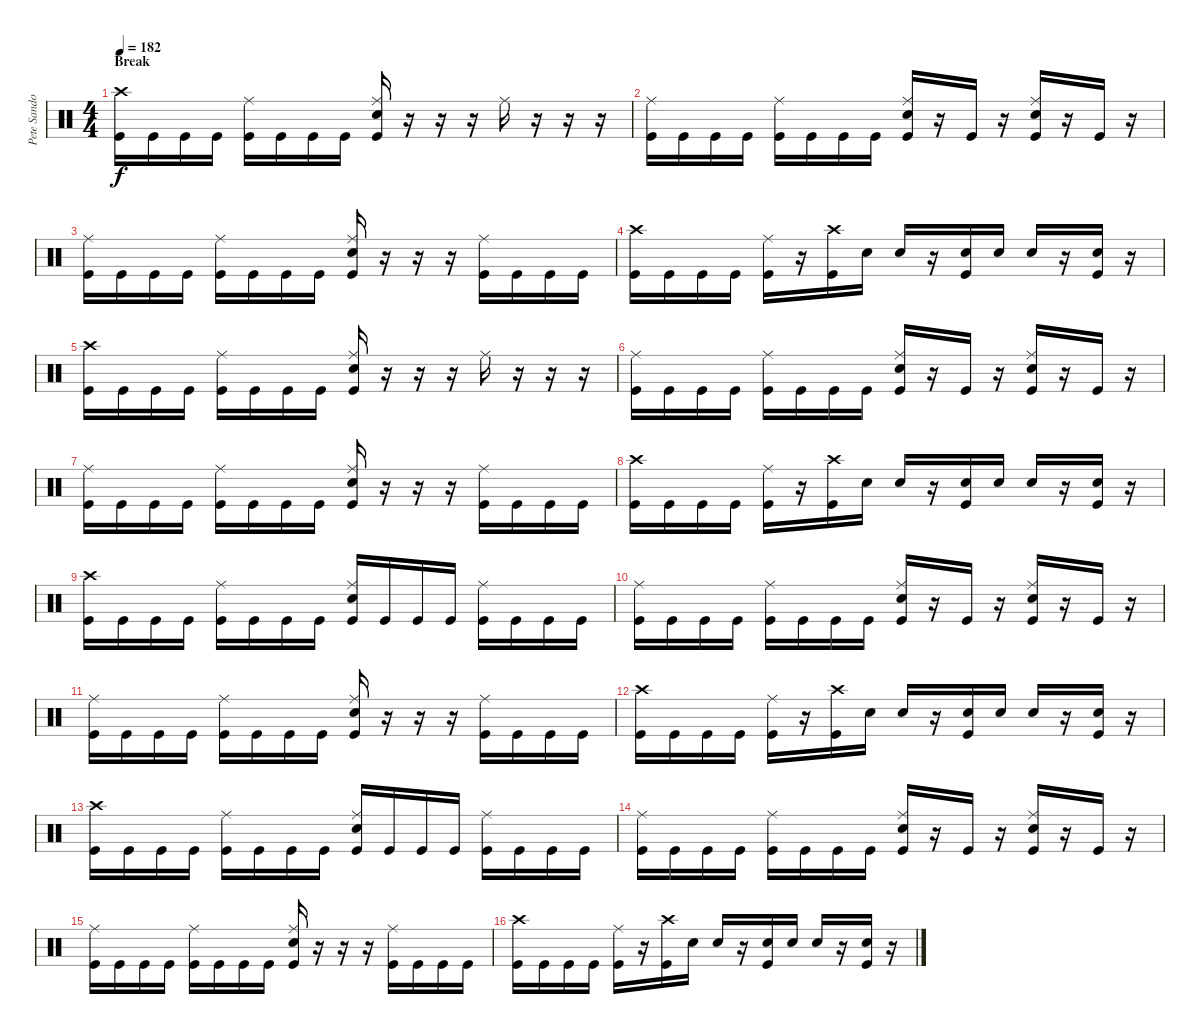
\track ("Pete Sandoval" "Pete Sando") {instrument percussion}
\staff {score}
\articulation defaults
\ts (4 4)
\section ("" "Break")
\tempo 182
\clef neutral
\ks c
("Crash high (hit)" "Kick (hit)").16{dy f} "Kick (hit)".16 "Kick (hit)".16 "Kick (hit)".16 ("Ride (middle)" "Kick (hit)").16 "Kick (hit)".16 "Kick (hit)".16 "Kick (hit)".16 ("Ride (middle)" "Electric Snare (hit)" "Kick (hit)").16 r.16 r.16 r.16 "Ride (middle)".16 r.16 r.16 r.16 |
("Ride (middle)" "Kick (hit)").16 "Kick (hit)".16 "Kick (hit)".16 "Kick (hit)".16 ("Ride (middle)" "Kick (hit)").16 "Kick (hit)".16 "Kick (hit)".16 "Kick (hit)".16 ("Ride (middle)" "Electric Snare (hit)" "Kick (hit)").16 r.16 "Kick (hit)".16 r.16 ("Ride (middle)" "Electric Snare (hit)" "Kick (hit)").16 r.16 "Kick (hit)".16 r.16 |
("Ride (middle)" "Kick (hit)").16 "Kick (hit)".16 "Kick (hit)".16 "Kick (hit)".16 ("Ride (middle)" "Kick (hit)").16 "Kick (hit)".16 "Kick (hit)".16 "Kick (hit)".16 ("Ride (middle)" "Electric Snare (hit)" "Kick (hit)").16 r.16 r.16 r.16 ("Ride (middle)" "Kick (hit)").16 "Kick (hit)".16 "Kick (hit)".16 "Kick (hit)".16 |
("Crash high (hit)" "Kick (hit)").16 "Kick (hit)".16 "Kick (hit)".16 "Kick (hit)".16 ("Ride (middle)" "Kick (hit)").16 r.16 ("Crash high (hit)" "Kick (hit)").16 "Electric Snare (hit)".16 "Electric Snare (hit)".16 r.16 ("Electric Snare (hit)" "Kick (hit)").16 "Electric Snare (hit)".16 "Electric Snare (hit)".16 r.16 ("Electric Snare (hit)" "Kick (hit)").16 r.16 |
("Crash high (hit)" "Kick (hit)").16 "Kick (hit)".16 "Kick (hit)".16 "Kick (hit)".16 ("Ride (middle)" "Kick (hit)").16 "Kick (hit)".16 "Kick (hit)".16 "Kick (hit)".16 ("Ride (middle)" "Electric Snare (hit)" "Kick (hit)").16 r.16 r.16 r.16 "Ride (middle)".16 r.16 r.16 r.16 |
("Ride (middle)" "Kick (hit)").16 "Kick (hit)".16 "Kick (hit)".16 "Kick (hit)".16 ("Ride (middle)" "Kick (hit)").16 "Kick (hit)".16 "Kick (hit)".16 "Kick (hit)".16 ("Ride (middle)" "Electric Snare (hit)" "Kick (hit)").16 r.16 "Kick (hit)".16 r.16 ("Ride (middle)" "Electric Snare (hit)" "Kick (hit)").16 r.16 "Kick (hit)".16 r.16 |
("Ride (middle)" "Kick (hit)").16 "Kick (hit)".16 "Kick (hit)".16 "Kick (hit)".16 ("Ride (middle)" "Kick (hit)").16 "Kick (hit)".16 "Kick (hit)".16 "Kick (hit)".16 ("Ride (middle)" "Electric Snare (hit)" "Kick (hit)").16 r.16 r.16 r.16 ("Ride (middle)" "Kick (hit)").16 "Kick (hit)".16 "Kick (hit)".16 "Kick (hit)".16 |
("Crash high (hit)" "Kick (hit)").16 "Kick (hit)".16 "Kick (hit)".16 "Kick (hit)".16 ("Ride (middle)" "Kick (hit)").16 r.16 ("Crash high (hit)" "Kick (hit)").16 "Electric Snare (hit)".16 "Electric Snare (hit)".16 r.16 ("Electric Snare (hit)" "Kick (hit)").16 "Electric Snare (hit)".16 "Electric Snare (hit)".16 r.16 ("Electric Snare (hit)" "Kick (hit)").16 r.16 |
("Crash high (hit)" "Kick (hit)").16 "Kick (hit)".16 "Kick (hit)".16 "Kick (hit)".16 ("Ride (middle)" "Kick (hit)").16 "Kick (hit)".16 "Kick (hit)".16 "Kick (hit)".16 ("Ride (middle)" "Electric Snare (hit)" "Kick (hit)").16 "Kick (hit)".16 "Kick (hit)".16 "Kick (hit)".16 ("Ride (middle)" "Kick (hit)").16 "Kick (hit)".16 "Kick (hit)".16 "Kick (hit)".16 |
("Ride (middle)" "Kick (hit)").16 "Kick (hit)".16 "Kick (hit)".16 "Kick (hit)".16 ("Ride (middle)" "Kick (hit)").16 "Kick (hit)".16 "Kick (hit)".16 "Kick (hit)".16 ("Ride (middle)" "Electric Snare (hit)" "Kick (hit)").16 r.16 "Kick (hit)".16 r.16 ("Ride (middle)" "Electric Snare (hit)" "Kick (hit)").16 r.16 "Kick (hit)".16 r.16 |
("Ride (middle)" "Kick (hit)").16 "Kick (hit)".16 "Kick (hit)".16 "Kick (hit)".16 ("Ride (middle)" "Kick (hit)").16 "Kick (hit)".16 "Kick (hit)".16 "Kick (hit)".16 ("Ride (middle)" "Electric Snare (hit)" "Kick (hit)").16 r.16 r.16 r.16 ("Ride (middle)" "Kick (hit)").16 "Kick (hit)".16 "Kick (hit)".16 "Kick (hit)".16 |
("Crash high (hit)" "Kick (hit)").16 "Kick (hit)".16 "Kick (hit)".16 "Kick (hit)".16 ("Ride (middle)" "Kick (hit)").16 r.16 ("Crash high (hit)" "Kick (hit)").16 "Electric Snare (hit)".16 "Electric Snare (hit)".16 r.16 ("Electric Snare (hit)" "Kick (hit)").16 "Electric Snare (hit)".16 "Electric Snare (hit)".16 r.16 ("Electric Snare (hit)" "Kick (hit)").16 r.16 |
("Crash high (hit)" "Kick (hit)").16 "Kick (hit)".16 "Kick (hit)".16 "Kick (hit)".16 ("Ride (middle)" "Kick (hit)").16 "Kick (hit)".16 "Kick (hit)".16 "Kick (hit)".16 ("Ride (middle)" "Electric Snare (hit)" "Kick (hit)").16 "Kick (hit)".16 "Kick (hit)".16 "Kick (hit)".16 ("Ride (middle)" "Kick (hit)").16 "Kick (hit)".16 "Kick (hit)".16 "Kick (hit)".16 |
("Ride (middle)" "Kick (hit)").16 "Kick (hit)".16 "Kick (hit)".16 "Kick (hit)".16 ("Ride (middle)" "Kick (hit)").16 "Kick (hit)".16 "Kick (hit)".16 "Kick (hit)".16 ("Ride (middle)" "Electric Snare (hit)" "Kick (hit)").16 r.16 "Kick (hit)".16 r.16 ("Ride (middle)" "Electric Snare (hit)" "Kick (hit)").16 r.16 "Kick (hit)".16 r.16 |
("Ride (middle)" "Kick (hit)").16 "Kick (hit)".16 "Kick (hit)".16 "Kick (hit)".16 ("Ride (middle)" "Kick (hit)").16 "Kick (hit)".16 "Kick (hit)".16 "Kick (hit)".16 ("Ride (middle)" "Electric Snare (hit)" "Kick (hit)").16 r.16 r.16 r.16 ("Ride (middle)" "Kick (hit)").16 "Kick (hit)".16 "Kick (hit)".16 "Kick (hit)".16 |
("Crash high (hit)" "Kick (hit)").16 "Kick (hit)".16 "Kick (hit)".16 "Kick (hit)".16 ("Ride (middle)" "Kick (hit)").16 r.16 ("Crash high (hit)" "Kick (hit)").16 "Electric Snare (hit)".16 "Electric Snare (hit)".16 r.16 ("Electric Snare (hit)" "Kick (hit)").16 "Electric Snare (hit)".16 "Electric Snare (hit)".16 r.16 ("Electric Snare (hit)" "Kick (hit)").16 r.16
